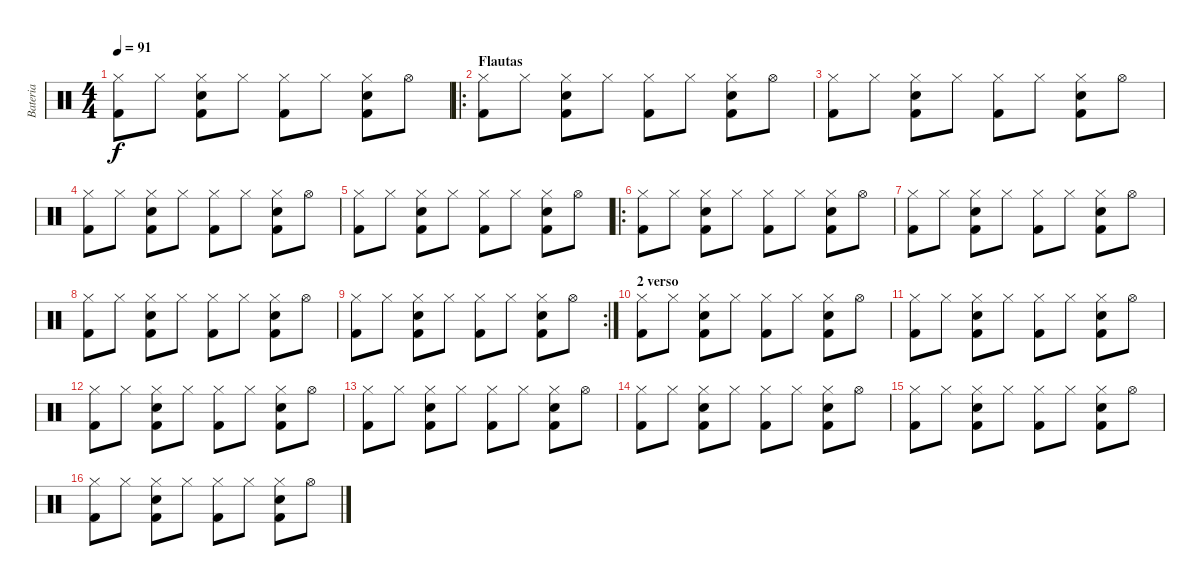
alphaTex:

\track ("Bateria" "Bateria") {instrument percussion}
\staff {score}
\articulation defaults
\ts (4 4)
\tempo 91
\clef neutral
\ks c
("Hi-Hat (closed)" "Kick (hit) 2").8{dy f} "Hi-Hat (closed)".8 ("Hi-Hat (closed)" "Electric Snare (hit)" "Kick (hit) 2").8 "Hi-Hat (closed)".8 ("Hi-Hat (closed)" "Kick (hit) 2").8 "Hi-Hat (closed)".8 ("Hi-Hat (closed)" "Electric Snare (hit)" "Kick (hit) 2").8 "Hi-Hat (open)".8 |
\ro
\section ("" "Flautas")
("Hi-Hat (closed)" "Kick (hit) 2").8 "Hi-Hat (closed)".8 ("Hi-Hat (closed)" "Electric Snare (hit)" "Kick (hit) 2").8 "Hi-Hat (closed)".8 ("Hi-Hat (closed)" "Kick (hit) 2").8 "Hi-Hat (closed)".8 ("Hi-Hat (closed)" "Electric Snare (hit)" "Kick (hit) 2").8 "Hi-Hat (open)".8 |
("Hi-Hat (closed)" "Kick (hit) 2").8 "Hi-Hat (closed)".8 ("Hi-Hat (closed)" "Electric Snare (hit)" "Kick (hit) 2").8 "Hi-Hat (closed)".8 ("Hi-Hat (closed)" "Kick (hit) 2").8 "Hi-Hat (closed)".8 ("Hi-Hat (closed)" "Electric Snare (hit)" "Kick (hit) 2").8 "Hi-Hat (open)".8 |
("Hi-Hat (closed)" "Kick (hit) 2").8 "Hi-Hat (closed)".8 ("Hi-Hat (closed)" "Electric Snare (hit)" "Kick (hit) 2").8 "Hi-Hat (closed)".8 ("Hi-Hat (closed)" "Kick (hit) 2").8 "Hi-Hat (closed)".8 ("Hi-Hat (closed)" "Electric Snare (hit)" "Kick (hit) 2").8 "Hi-Hat (open)".8 |
("Hi-Hat (closed)" "Kick (hit) 2").8 "Hi-Hat (closed)".8 ("Hi-Hat (closed)" "Electric Snare (hit)" "Kick (hit) 2").8 "Hi-Hat (closed)".8 ("Hi-Hat (closed)" "Kick (hit) 2").8 "Hi-Hat (closed)".8 ("Hi-Hat (closed)" "Electric Snare (hit)" "Kick (hit) 2").8 "Hi-Hat (open)".8 |
\ro
("Hi-Hat (closed)" "Kick (hit) 2").8 "Hi-Hat (closed)".8 ("Hi-Hat (closed)" "Electric Snare (hit)" "Kick (hit) 2").8 "Hi-Hat (closed)".8 ("Hi-Hat (closed)" "Kick (hit) 2").8 "Hi-Hat (closed)".8 ("Hi-Hat (closed)" "Electric Snare (hit)" "Kick (hit) 2").8 "Hi-Hat (open)".8 |
("Hi-Hat (closed)" "Kick (hit) 2").8 "Hi-Hat (closed)".8 ("Hi-Hat (closed)" "Electric Snare (hit)" "Kick (hit) 2").8 "Hi-Hat (closed)".8 ("Hi-Hat (closed)" "Kick (hit) 2").8 "Hi-Hat (closed)".8 ("Hi-Hat (closed)" "Electric Snare (hit)" "Kick (hit) 2").8 "Hi-Hat (open)".8 |
("Hi-Hat (closed)" "Kick (hit) 2").8 "Hi-Hat (closed)".8 ("Hi-Hat (closed)" "Electric Snare (hit)" "Kick (hit) 2").8 "Hi-Hat (closed)".8 ("Hi-Hat (closed)" "Kick (hit) 2").8 "Hi-Hat (closed)".8 ("Hi-Hat (closed)" "Electric Snare (hit)" "Kick (hit) 2").8 "Hi-Hat (open)".8 |
\rc 2
("Hi-Hat (closed)" "Kick (hit) 2").8 "Hi-Hat (closed)".8 ("Hi-Hat (closed)" "Electric Snare (hit)" "Kick (hit) 2").8 "Hi-Hat (closed)".8 ("Hi-Hat (closed)" "Kick (hit) 2").8 "Hi-Hat (closed)".8 ("Hi-Hat (closed)" "Electric Snare (hit)" "Kick (hit) 2").8 "Hi-Hat (open)".8 |
\section ("" "2 verso")
("Hi-Hat (closed)" "Kick (hit) 2").8 "Hi-Hat (closed)".8 ("Hi-Hat (closed)" "Electric Snare (hit)" "Kick (hit) 2").8 "Hi-Hat (closed)".8 ("Hi-Hat (closed)" "Kick (hit) 2").8 "Hi-Hat (closed)".8 ("Hi-Hat (closed)" "Electric Snare (hit)" "Kick (hit) 2").8 "Hi-Hat (open)".8 |
("Hi-Hat (closed)" "Kick (hit) 2").8 "Hi-Hat (closed)".8 ("Hi-Hat (closed)" "Electric Snare (hit)" "Kick (hit) 2").8 "Hi-Hat (closed)".8 ("Hi-Hat (closed)" "Kick (hit) 2").8 "Hi-Hat (closed)".8 ("Hi-Hat (closed)" "Electric Snare (hit)" "Kick (hit) 2").8 "Hi-Hat (open)".8 |
("Hi-Hat (closed)" "Kick (hit) 2").8 "Hi-Hat (closed)".8 ("Hi-Hat (closed)" "Electric Snare (hit)" "Kick (hit) 2").8 "Hi-Hat (closed)".8 ("Hi-Hat (closed)" "Kick (hit) 2").8 "Hi-Hat (closed)".8 ("Hi-Hat (closed)" "Electric Snare (hit)" "Kick (hit) 2").8 "Hi-Hat (open)".8 |
("Hi-Hat (closed)" "Kick (hit) 2").8 "Hi-Hat (closed)".8 ("Hi-Hat (closed)" "Electric Snare (hit)" "Kick (hit) 2").8 "Hi-Hat (closed)".8 ("Hi-Hat (closed)" "Kick (hit) 2").8 "Hi-Hat (closed)".8 ("Hi-Hat (closed)" "Electric Snare (hit)" "Kick (hit) 2").8 "Hi-Hat (open)".8 |
("Hi-Hat (closed)" "Kick (hit) 2").8 "Hi-Hat (closed)".8 ("Hi-Hat (closed)" "Electric Snare (hit)" "Kick (hit) 2").8 "Hi-Hat (closed)".8 ("Hi-Hat (closed)" "Kick (hit) 2").8 "Hi-Hat (closed)".8 ("Hi-Hat (closed)" "Electric Snare (hit)" "Kick (hit) 2").8 "Hi-Hat (open)".8 |
("Hi-Hat (closed)" "Kick (hit) 2").8 "Hi-Hat (closed)".8 ("Hi-Hat (closed)" "Electric Snare (hit)" "Kick (hit) 2").8 "Hi-Hat (closed)".8 ("Hi-Hat (closed)" "Kick (hit) 2").8 "Hi-Hat (closed)".8 ("Hi-Hat (closed)" "Electric Snare (hit)" "Kick (hit) 2").8 "Hi-Hat (open)".8 |
("Hi-Hat (closed)" "Kick (hit) 2").8 "Hi-Hat (closed)".8 ("Hi-Hat (closed)" "Electric Snare (hit)" "Kick (hit) 2").8 "Hi-Hat (closed)".8 ("Hi-Hat (closed)" "Kick (hit) 2").8 "Hi-Hat (closed)".8 ("Hi-Hat (closed)" "Electric Snare (hit)" "Kick (hit) 2").8 "Hi-Hat (open)".8
